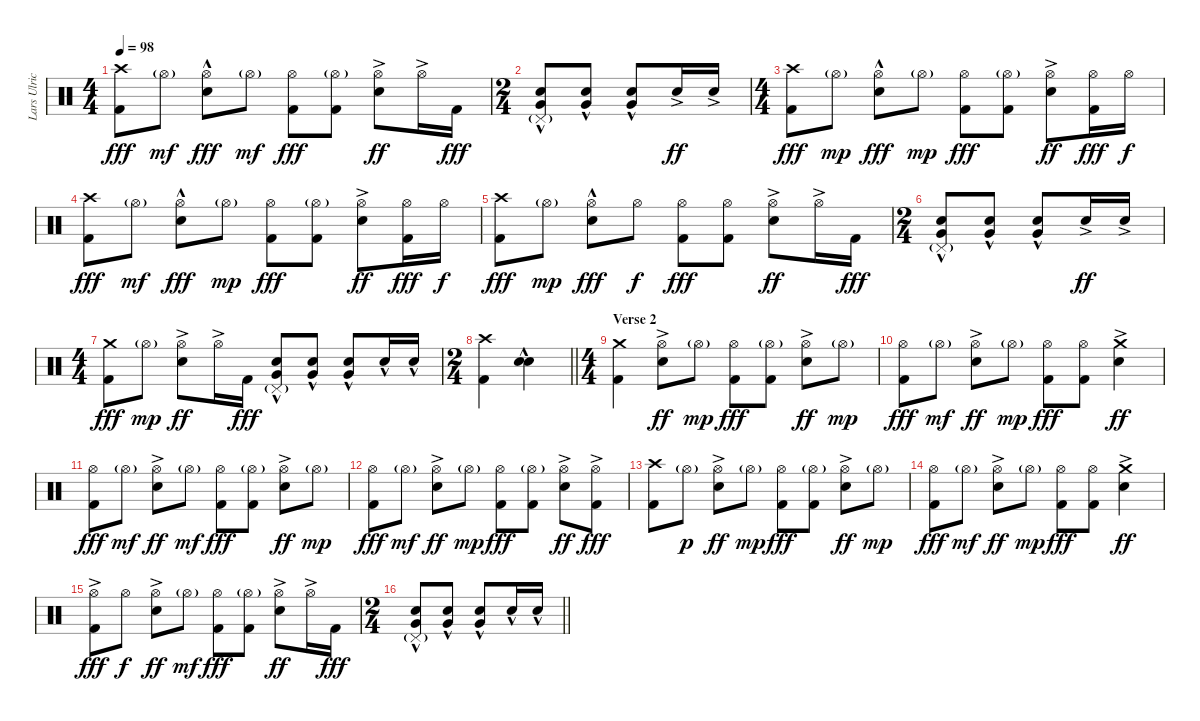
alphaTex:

\track ("Lars Ulrich (Drums)" "Lars Ulric") {instrument percussion}
\staff {score}
\articulation defaults
\ts (4 4)
\tempo 98
\clef neutral
\ks c
("Crash high (hit)" "Kick (hit) 2").8{dy fff} "Hi-Hat (open)"{g}.8{dy mf} ("Hi-Hat (open)"{hac} "Electric Snare (hit)"{hac}).8{dy fff} "Hi-Hat (open)"{g}.8{dy mf} ("Hi-Hat (open)" "Kick (hit) 2").8{dy fff} ("Hi-Hat (open)"{g} "Kick (hit) 2").8 ("Hi-Hat (open)"{ac} "Electric Snare (hit)"{ac}).8{dy ff} "Hi-Hat (open)"{ac}.16 "Kick (hit) 2".16{dy fff} |
\ts (2 4)
("Pedal Hi-Hat (hit)"{g} "Electric Snare (hit)"{hac} "Very Low Tom (hit)"{hac}).8 ("Electric Snare (hit)"{hac} "Very Low Tom (hit)"{hac}).8 ("Electric Snare (hit)"{hac} "Very Low Tom (hit)"{hac}).8 "Electric Snare (hit)"{ac}.16{dy ff} "Electric Snare (hit)"{ac}.16 |
\ts (4 4)
("Crash high (hit)" "Kick (hit) 2").8{dy fff} "Hi-Hat (open)"{g}.8{dy mp} ("Hi-Hat (open)"{hac} "Electric Snare (hit)"{hac}).8{dy fff} "Hi-Hat (open)"{g}.8{dy mp} ("Hi-Hat (open)" "Kick (hit) 2").8{dy fff} ("Hi-Hat (open)"{g} "Kick (hit) 2").8 ("Hi-Hat (open)"{ac} "Electric Snare (hit)"{ac}).8{dy ff} ("Hi-Hat (open)" "Kick (hit) 2").16{dy fff} "Hi-Hat (open)".16{dy f} |
("Crash high (hit)" "Kick (hit) 2").8{dy fff} "Hi-Hat (open)"{g}.8{dy mf} ("Hi-Hat (open)"{hac} "Electric Snare (hit)"{hac}).8{dy fff} "Hi-Hat (open)"{g}.8{dy mp} ("Hi-Hat (open)" "Kick (hit) 2").8{dy fff} ("Hi-Hat (open)"{g} "Kick (hit) 2").8 ("Hi-Hat (open)"{ac} "Electric Snare (hit)"{ac}).8{dy ff} ("Hi-Hat (open)" "Kick (hit) 2").16{dy fff} "Hi-Hat (open)".16{dy f} |
("Crash high (hit)" "Kick (hit) 2").8{dy fff} "Hi-Hat (open)"{g}.8{dy mp} ("Hi-Hat (open)"{hac} "Electric Snare (hit)"{hac}).8{dy fff} "Hi-Hat (open)".8{dy f} ("Hi-Hat (open)" "Kick (hit) 2").8{dy fff} ("Hi-Hat (open)" "Kick (hit) 2").8 ("Hi-Hat (open)"{ac} "Electric Snare (hit)"{ac}).8{dy ff} "Hi-Hat (open)"{ac}.16 "Kick (hit) 2".16{dy fff} |
\ts (2 4)
("Pedal Hi-Hat (hit)"{g} "Electric Snare (hit)"{hac} "Very Low Tom (hit)"{hac}).8 ("Electric Snare (hit)"{hac} "Very Low Tom (hit)"{hac}).8 ("Electric Snare (hit)"{hac} "Very Low Tom (hit)"{hac}).8 "Electric Snare (hit)"{ac}.16{dy ff} "Electric Snare (hit)"{ac}.16 |
\ts (4 4)
("Crash medium (hit)" "Kick (hit) 2").8{dy fff} "Hi-Hat (open)"{g}.8{dy mp} ("Hi-Hat (open)"{ac} "Electric Snare (hit)"{ac}).8{dy ff} "Hi-Hat (open)"{ac}.16 "Kick (hit) 2".16{dy fff} ("Pedal Hi-Hat (hit)"{g} "Electric Snare (hit)"{hac} "Very Low Tom (hit)"{hac}).8 ("Electric Snare (hit)"{hac} "Very Low Tom (hit)"{hac}).8 ("Electric Snare (hit)"{hac} "Very Low Tom (hit)"{hac}).8 "Electric Snare (hit)"{hac}.16 "Electric Snare (hit)"{hac}.16 |
\ts (2 4)
\barLineRight lightlight
("Crash high (hit)" "Kick (hit) 2").4 ("Electric Snare (hit)"{hac} "Electric Snare (hit)"{hac}).4{bd 60} |
\ts (4 4)
\section ("" "Verse 2")
("Crash medium (hit)" "Kick (hit) 2").4 ("Hi-Hat (open)"{ac} "Electric Snare (hit)"{ac}).8{dy ff} "Hi-Hat (open)"{g}.8{dy mp} ("Hi-Hat (open)" "Kick (hit) 2").8{dy fff} ("Hi-Hat (open)"{g} "Kick (hit) 2").8 ("Hi-Hat (open)"{ac} "Electric Snare (hit)"{ac}).8{dy ff} "Hi-Hat (open)"{g}.8{dy mp} |
("Hi-Hat (open)" "Kick (hit) 2").8{dy fff} "Hi-Hat (open)"{g}.8{dy mf} ("Hi-Hat (open)"{ac} "Electric Snare (hit)"{ac}).8{dy ff} "Hi-Hat (open)"{g}.8{dy mp} ("Hi-Hat (open)" "Kick (hit) 2").8{dy fff} ("Hi-Hat (open)" "Kick (hit) 2").8 ("Crash medium (hit)" "Electric Snare (hit)"{ac}).4{dy ff} |
("Hi-Hat (open)" "Kick (hit) 2").8{dy fff} "Hi-Hat (open)"{g}.8{dy mf} ("Hi-Hat (open)"{ac} "Electric Snare (hit)"{ac}).8{dy ff} "Hi-Hat (open)"{g}.8{dy mf} ("Hi-Hat (open)" "Kick (hit) 2").8{dy fff} ("Hi-Hat (open)"{g} "Kick (hit) 2").8 ("Hi-Hat (open)"{ac} "Electric Snare (hit)"{ac}).8{dy ff} "Hi-Hat (open)"{g}.8{dy mp} |
("Hi-Hat (open)" "Kick (hit) 2").8{dy fff} "Hi-Hat (open)"{g}.8{dy mf} ("Hi-Hat (open)"{ac} "Electric Snare (hit)"{ac}).8{dy ff} "Hi-Hat (open)"{g}.8{dy mp} ("Hi-Hat (open)" "Kick (hit) 2").8{dy fff} ("Hi-Hat (open)"{g} "Kick (hit) 2").8 ("Hi-Hat (open)"{ac} "Electric Snare (hit)"{ac}).8{dy ff} ("Hi-Hat (open)"{ac} "Kick (hit) 2").8{dy fff} |
("Crash high (hit)" "Kick (hit) 2").8 "Hi-Hat (open)"{g}.8{dy p} ("Hi-Hat (open)"{ac} "Electric Snare (hit)"{ac}).8{dy ff} "Hi-Hat (open)"{g}.8{dy mp} ("Hi-Hat (open)" "Kick (hit) 2").8{dy fff} ("Hi-Hat (open)"{g} "Kick (hit) 2").8 ("Hi-Hat (open)"{ac} "Electric Snare (hit)"{ac}).8{dy ff} "Hi-Hat (open)"{g}.8{dy mp} |
("Hi-Hat (open)" "Kick (hit) 2").8{dy fff} "Hi-Hat (open)"{g}.8{dy mf} ("Hi-Hat (open)"{ac} "Electric Snare (hit)"{ac}).8{dy ff} "Hi-Hat (open)"{g}.8{dy mp} ("Hi-Hat (open)" "Kick (hit) 2").8{dy fff} ("Hi-Hat (open)" "Kick (hit) 2").8 ("Crash medium (hit)" "Electric Snare (hit)"{ac}).4{dy ff} |
("Hi-Hat (open)"{ac} "Kick (hit) 2").8{dy fff} "Hi-Hat (open)".8{dy f} ("Hi-Hat (open)"{ac} "Electric Snare (hit)"{ac}).8{dy ff} "Hi-Hat (open)"{g}.8{dy mf} ("Hi-Hat (open)" "Kick (hit) 2").8{dy fff} ("Hi-Hat (open)"{g} "Kick (hit) 2").8 ("Hi-Hat (open)"{ac} "Electric Snare (hit)"{ac}).8{dy ff} "Hi-Hat (open)"{ac}.16 "Kick (hit) 2".16{dy fff} |
\ts (2 4)
\barLineRight lightlight
("Pedal Hi-Hat (hit)"{g} "Electric Snare (hit)"{hac} "Very Low Tom (hit)"{hac}).8 ("Electric Snare (hit)"{hac} "Very Low Tom (hit)"{hac}).8 ("Electric Snare (hit)"{hac} "Very Low Tom (hit)"{hac}).8 "Electric Snare (hit)"{hac}.16 "Electric Snare (hit)"{hac}.16
